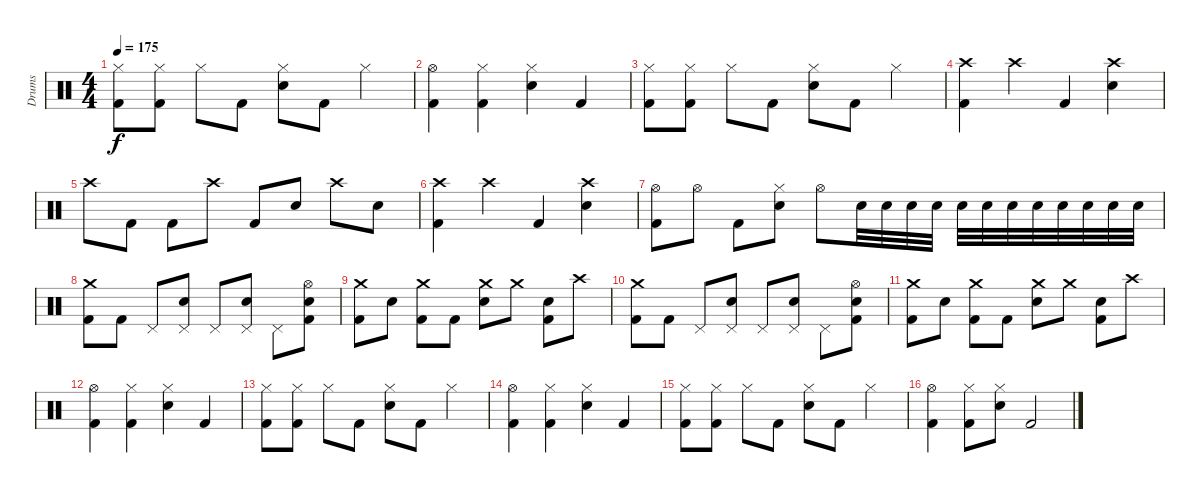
\track ("Drums" "Drums") {instrument percussion}
\staff {score}
\articulation defaults
\ts (4 4)
\tempo 175
\clef neutral
\ks c
("Hi-Hat (closed)" "Kick (hit) 2").8{dy f} ("Hi-Hat (closed)" "Kick (hit) 2").8 "Hi-Hat (closed)".8 "Kick (hit) 2".8 ("Hi-Hat (closed)" "Snare (hit) 2").8 "Kick (hit) 2".8 "Hi-Hat (closed)".4 |
("Hi-Hat (open)" "Kick (hit) 2").4 ("Hi-Hat (closed)" "Kick (hit) 2").4 ("Hi-Hat (closed)" "Snare (hit) 2").4 "Kick (hit) 2".4 |
("Hi-Hat (closed)" "Kick (hit) 2").8 ("Hi-Hat (closed)" "Kick (hit) 2").8 "Hi-Hat (closed)".8 "Kick (hit) 2".8 ("Hi-Hat (closed)" "Snare (hit) 2").8 "Kick (hit) 2".8 "Hi-Hat (closed)".4 |
("Crash high (hit)" "Kick (hit) 2").4 "Crash high (hit)".4 "Kick (hit) 2".4 ("Crash high (hit)" "Snare (hit) 2").4 |
"Crash high (hit)".8 "Kick (hit) 2".8 "Kick (hit) 2".8 "Crash high (hit)".8 "Kick (hit) 2".8 "Snare (hit) 2".8 "Crash high (hit)".8 "Snare (hit) 2".8 |
("Crash high (hit)" "Kick (hit) 2").4 "Crash high (hit)".4 "Kick (hit) 2".4 ("Crash high (hit)" "Snare (hit) 2").4 |
("Hi-Hat (open)" "Kick (hit) 2").8 "Hi-Hat (open)".8 "Kick (hit) 2".8 ("Hi-Hat (closed)" "Snare (hit) 2").8 "Hi-Hat (open)".8 "Snare (hit) 2".32 "Snare (hit) 2".32 "Snare (hit) 2".32 "Snare (hit) 2".32 "Snare (hit) 2".32 "Snare (hit) 2".32 "Snare (hit) 2".32 "Snare (hit) 2".32 "Snare (hit) 2".32 "Snare (hit) 2".32 "Snare (hit) 2".32 "Snare (hit) 2".32 |
("Crash medium (hit)" "Kick (hit) 2").8 "Kick (hit) 2".8 "Pedal Hi-Hat (hit)".8 ("Pedal Hi-Hat (hit)" "Snare (hit) 2").8 "Pedal Hi-Hat (hit)".8 ("Pedal Hi-Hat (hit)" "Snare (hit) 2").8 "Pedal Hi-Hat (hit)".8 ("Hi-Hat (open)" "Snare (hit) 2" "Kick (hit) 2").8 |
("Crash medium (hit)" "Kick (hit) 2").8 "Snare (hit) 2".8 ("Crash medium (hit)" "Kick (hit) 2").8 "Kick (hit) 2".8 ("Crash medium (hit)" "Snare (hit) 2").8 "Crash medium (hit)".8 ("Snare (hit) 2" "Kick (hit) 2").8 "Crash high (hit)".8 |
("Crash medium (hit)" "Kick (hit) 2").8 "Kick (hit) 2".8 "Pedal Hi-Hat (hit)".8 ("Pedal Hi-Hat (hit)" "Snare (hit) 2").8 "Pedal Hi-Hat (hit)".8 ("Pedal Hi-Hat (hit)" "Snare (hit) 2").8 "Pedal Hi-Hat (hit)".8 ("Hi-Hat (open)" "Snare (hit) 2" "Kick (hit) 2").8 |
("Crash medium (hit)" "Kick (hit) 2").8 "Snare (hit) 2".8 ("Crash medium (hit)" "Kick (hit) 2").8 "Kick (hit) 2".8 ("Crash medium (hit)" "Snare (hit) 2").8 "Crash medium (hit)".8 ("Snare (hit) 2" "Kick (hit) 2").8 "Crash high (hit)".8 |
("Hi-Hat (open)" "Kick (hit) 2").4 ("Hi-Hat (closed)" "Kick (hit) 2").4 ("Hi-Hat (closed)" "Snare (hit) 2").4 "Kick (hit) 2".4 |
("Hi-Hat (closed)" "Kick (hit) 2").8 ("Hi-Hat (closed)" "Kick (hit) 2").8 "Hi-Hat (closed)".8 "Kick (hit) 2".8 ("Hi-Hat (closed)" "Snare (hit) 2").8 "Kick (hit) 2".8 "Hi-Hat (closed)".4 |
("Hi-Hat (open)" "Kick (hit) 2").4 ("Hi-Hat (closed)" "Kick (hit) 2").4 ("Hi-Hat (closed)" "Snare (hit) 2").4 "Kick (hit) 2".4 |
("Hi-Hat (closed)" "Kick (hit) 2").8 ("Hi-Hat (closed)" "Kick (hit) 2").8 "Hi-Hat (closed)".8 "Kick (hit) 2".8 ("Hi-Hat (closed)" "Snare (hit) 2").8 "Kick (hit) 2".8 "Hi-Hat (closed)".4 |
("Hi-Hat (open)" "Kick (hit) 2").4 ("Hi-Hat (closed)" "Kick (hit) 2").8 ("Hi-Hat (closed)" "Snare (hit) 2").8 "Kick (hit) 2".2
